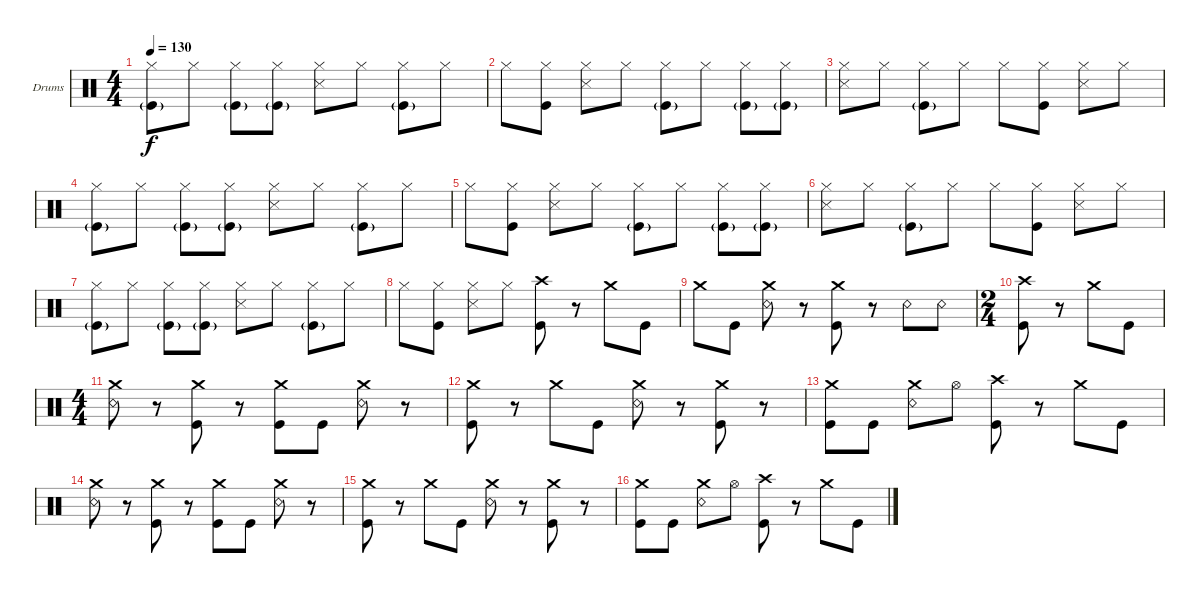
\bracketExtendMode groupsimilarinstruments
\firstSystemTrackNameOrientation horizontal
\otherSystemsTrackNameOrientation horizontal
\track ("Drumkit" "Drums") {instrument percussion}
\staff {score}
\articulation defaults
\ts (4 4)
\tempo 130
\clef neutral
\ks c
("Kick (hit)"{g} "Hi-Hat (closed)").8{dy f} "Hi-Hat (closed)".8 ("Hi-Hat (closed)" "Kick (hit)"{g}).8 ("Hi-Hat (closed)" "Kick (hit)"{g}).8 ("Snare (side stick) 3" "Hi-Hat (closed)").8 "Hi-Hat (closed)".8 ("Hi-Hat (closed)" "Kick (hit)"{g}).8 "Hi-Hat (closed)".8 |
"Hi-Hat (closed)".8 ("Hi-Hat (closed)" "Kick (hit)").8 ("Hi-Hat (closed)" "Snare (side stick) 3").8 "Hi-Hat (closed)".8 ("Kick (hit)"{g} "Hi-Hat (closed)").8 "Hi-Hat (closed)".8 ("Hi-Hat (closed)" "Kick (hit)"{g}).8 ("Hi-Hat (closed)" "Kick (hit)"{g}).8 |
("Snare (side stick) 3" "Hi-Hat (closed)").8 "Hi-Hat (closed)".8 ("Hi-Hat (closed)" "Kick (hit)"{g}).8 "Hi-Hat (closed)".8 "Hi-Hat (closed)".8 ("Hi-Hat (closed)" "Kick (hit)").8 ("Hi-Hat (closed)" "Snare (side stick) 3").8 "Hi-Hat (closed)".8 |
("Kick (hit)"{g} "Hi-Hat (closed)").8 "Hi-Hat (closed)".8 ("Hi-Hat (closed)" "Kick (hit)"{g}).8 ("Hi-Hat (closed)" "Kick (hit)"{g}).8 ("Snare (side stick) 3" "Hi-Hat (closed)").8 "Hi-Hat (closed)".8 ("Hi-Hat (closed)" "Kick (hit)"{g}).8 "Hi-Hat (closed)".8 |
"Hi-Hat (closed)".8 ("Hi-Hat (closed)" "Kick (hit)").8 ("Hi-Hat (closed)" "Snare (side stick) 3").8 "Hi-Hat (closed)".8 ("Kick (hit)"{g} "Hi-Hat (closed)").8 "Hi-Hat (closed)".8 ("Hi-Hat (closed)" "Kick (hit)"{g}).8 ("Hi-Hat (closed)" "Kick (hit)"{g}).8 |
("Snare (side stick) 3" "Hi-Hat (closed)").8 "Hi-Hat (closed)".8 ("Hi-Hat (closed)" "Kick (hit)"{g}).8 "Hi-Hat (closed)".8 "Hi-Hat (closed)".8 ("Hi-Hat (closed)" "Kick (hit)").8 ("Hi-Hat (closed)" "Snare (side stick) 3").8 "Hi-Hat (closed)".8 |
("Kick (hit)"{g} "Hi-Hat (closed)").8 "Hi-Hat (closed)".8 ("Hi-Hat (closed)" "Kick (hit)"{g}).8 ("Hi-Hat (closed)" "Kick (hit)"{g}).8 ("Snare (side stick) 3" "Hi-Hat (closed)").8 "Hi-Hat (closed)".8 ("Hi-Hat (closed)" "Kick (hit)"{g}).8 "Hi-Hat (closed)".8 |
"Hi-Hat (closed)".8 ("Hi-Hat (closed)" "Kick (hit)").8 ("Hi-Hat (closed)" "Snare (side stick) 3").8 "Hi-Hat (closed)".8 ("Kick (hit)" "Crash high (hit)").8 r.8 "Crash medium (hit)".8 "Kick (hit)".8 |
"Crash medium (hit)".8 "Kick (hit)".8 ("Crash medium (hit)" "Snare (rim shot)").8 r.8 ("Kick (hit)" "Crash medium (hit)").8 r.8 "Snare (rim shot)".8 "Snare (rim shot)".8 |
\ts (2 4)
("Kick (hit)" "Crash high (hit)").8 r.8 "Crash medium (hit)".8 "Kick (hit)".8 |
\ts (4 4)
("Snare (rim shot)" "Crash medium (hit)").8 r.8 ("Kick (hit)" "Crash medium (hit)").8 r.8 ("Kick (hit)" "Crash medium (hit)").8 "Kick (hit)".8 ("Snare (rim shot)" "Crash medium (hit)").8 r.8 |
("Kick (hit)" "Crash medium (hit)").8 r.8 "Crash medium (hit)".8 "Kick (hit)".8 ("Snare (rim shot)" "Crash medium (hit)").8 r.8 ("Kick (hit)" "Crash medium (hit)").8 r.8 |
("Kick (hit)" "Crash medium (hit)").8 "Kick (hit)".8 ("Snare (rim shot)" "Crash medium (hit)").8 "Hi-Hat (open)".8 ("Kick (hit)" "Crash high (hit)").8 r.8 "Crash medium (hit)".8 "Kick (hit)".8 |
("Snare (rim shot)" "Crash medium (hit)").8 r.8 ("Kick (hit)" "Crash medium (hit)").8 r.8 ("Kick (hit)" "Crash medium (hit)").8 "Kick (hit)".8 ("Snare (rim shot)" "Crash medium (hit)").8 r.8 |
("Kick (hit)" "Crash medium (hit)").8 r.8 "Crash medium (hit)".8 "Kick (hit)".8 ("Snare (rim shot)" "Crash medium (hit)").8 r.8 ("Kick (hit)" "Crash medium (hit)").8 r.8 |
("Kick (hit)" "Crash medium (hit)").8 "Kick (hit)".8 ("Snare (rim shot)" "Crash medium (hit)").8 "Hi-Hat (open)".8 ("Kick (hit)" "Crash high (hit)").8 r.8 "Crash medium (hit)".8 "Kick (hit)".8
